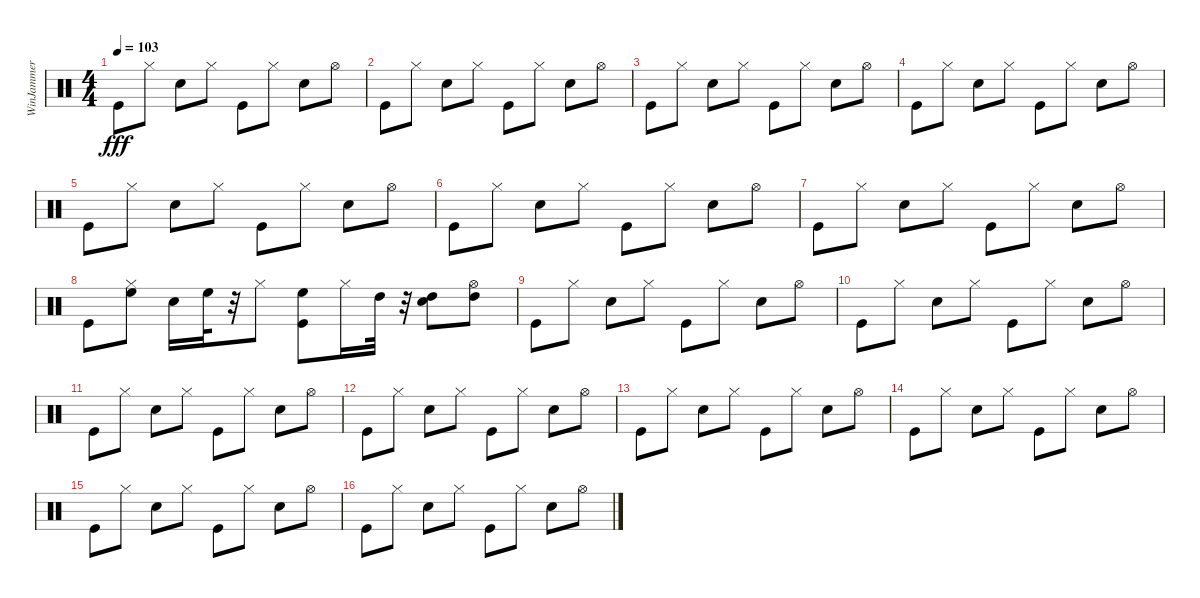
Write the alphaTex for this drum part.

\track ("WinJammer Demo" "WinJammer ") {instrument percussion}
\staff {score}
\articulation defaults
\ts (4 4)
\tempo 103
\clef neutral
\ks c "Kick (hit)".8{dy fff} "Hi-Hat (closed)".8 "Snare (hit) 2".8 "Hi-Hat (closed)".8 "Kick (hit)".8 "Hi-Hat (closed)".8 "Snare (hit) 2".8 "Hi-Hat (open)".8
|
"Kick (hit)".8 "Hi-Hat (closed)".8 "Snare (hit) 2".8 "Hi-Hat (closed)".8 "Kick (hit)".8 "Hi-Hat (closed)".8 "Snare (hit) 2".8 "Hi-Hat (open)".8 |
"Kick (hit)".8 "Hi-Hat (closed)".8 "Snare (hit) 2".8 "Hi-Hat (closed)".8 "Kick (hit)".8 "Hi-Hat (closed)".8 "Snare (hit) 2".8 "Hi-Hat (open)".8 |
"Kick (hit)".8 "Hi-Hat (closed)".8 "Snare (hit) 2".8 "Hi-Hat (closed)".8 "Kick (hit)".8 "Hi-Hat (closed)".8 "Snare (hit) 2".8 "Hi-Hat (open)".8 |
"Kick (hit)".8 "Hi-Hat (closed)".8 "Snare (hit) 2".8 "Hi-Hat (closed)".8 "Kick (hit)".8 "Hi-Hat (closed)".8 "Snare (hit) 2".8 "Hi-Hat (open)".8 |
"Kick (hit)".8 "Hi-Hat (closed)".8 "Snare (hit) 2".8 "Hi-Hat (closed)".8 "Kick (hit)".8 "Hi-Hat (closed)".8 "Snare (hit) 2".8 "Hi-Hat (open)".8 |
"Kick (hit)".8 "Hi-Hat (closed)".8 "Snare (hit) 2".8 "Hi-Hat (closed)".8 "Kick (hit)".8 "Hi-Hat (closed)".8 "Snare (hit) 2".8 "Hi-Hat (open)".8 |
"Kick (hit)".8 ("High Floor Tom (hit)" "Hi-Hat (closed)").8 "Snare (hit) 2".16 "High Floor Tom (hit)".32 r.32 "Hi-Hat (closed)".8 ("Kick (hit)" "High Floor Tom (hit)").8 "Hi-Hat (closed)".16 "High Tom (hit)".32 r.32 ("Snare (hit) 2" "High Tom (hit)").8 ("Hi-Hat (open)" "High Tom (hit)").8 |
"Kick (hit)".8 "Hi-Hat (closed)".8 "Snare (hit) 2".8 "Hi-Hat (closed)".8 "Kick (hit)".8 "Hi-Hat (closed)".8 "Snare (hit) 2".8 "Hi-Hat (open)".8 |
"Kick (hit)".8 "Hi-Hat (closed)".8 "Snare (hit) 2".8 "Hi-Hat (closed)".8 "Kick (hit)".8 "Hi-Hat (closed)".8 "Snare (hit) 2".8 "Hi-Hat (open)".8 |
"Kick (hit)".8 "Hi-Hat (closed)".8 "Snare (hit) 2".8 "Hi-Hat (closed)".8 "Kick (hit)".8 "Hi-Hat (closed)".8 "Snare (hit) 2".8 "Hi-Hat (open)".8 |
"Kick (hit)".8 "Hi-Hat (closed)".8 "Snare (hit) 2".8 "Hi-Hat (closed)".8 "Kick (hit)".8 "Hi-Hat (closed)".8 "Snare (hit) 2".8 "Hi-Hat (open)".8 |
"Kick (hit)".8 "Hi-Hat (closed)".8 "Snare (hit) 2".8 "Hi-Hat (closed)".8 "Kick (hit)".8 "Hi-Hat (closed)".8 "Snare (hit) 2".8 "Hi-Hat (open)".8 |
"Kick (hit)".8 "Hi-Hat (closed)".8 "Snare (hit) 2".8 "Hi-Hat (closed)".8 "Kick (hit)".8 "Hi-Hat (closed)".8 "Snare (hit) 2".8 "Hi-Hat (open)".8 |
"Kick (hit)".8 "Hi-Hat (closed)".8 "Snare (hit) 2".8 "Hi-Hat (closed)".8 "Kick (hit)".8 "Hi-Hat (closed)".8 "Snare (hit) 2".8 "Hi-Hat (open)".8 |
"Kick (hit)".8 "Hi-Hat (closed)".8 "Snare (hit) 2".8 "Hi-Hat (closed)".8 "Kick (hit)".8 "Hi-Hat (closed)".8 "Snare (hit) 2".8 "Hi-Hat (open)".8
